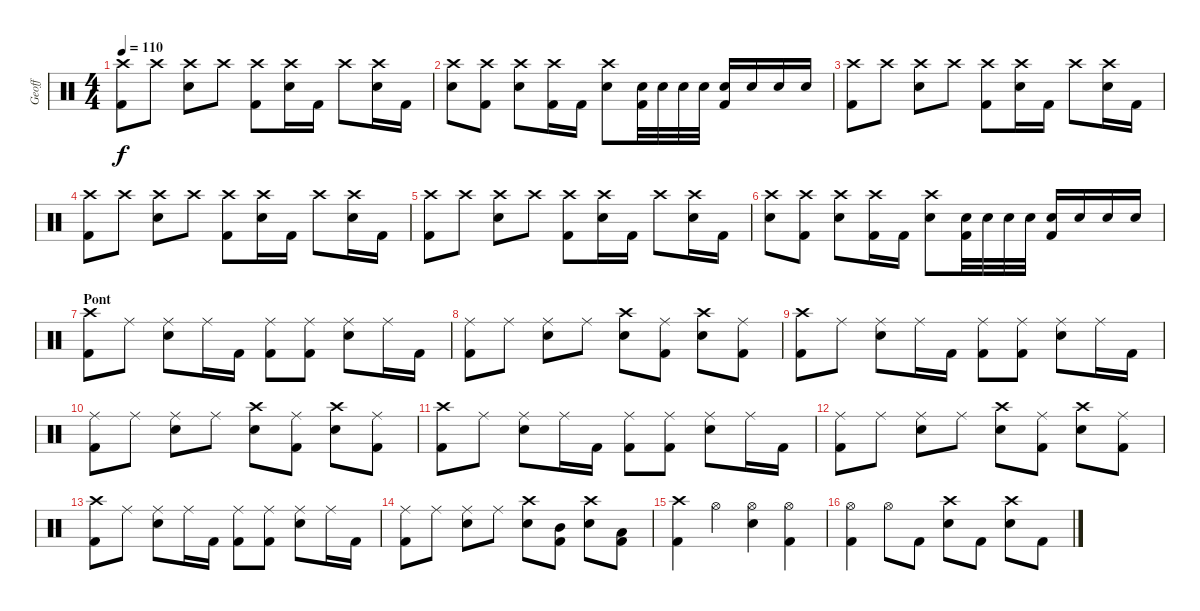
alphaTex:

\track ("Geoff" "Geoff") {instrument percussion}
\staff {score}
\articulation defaults
\ts (4 4)
\tempo 110
\clef neutral
\ks c
("Crash high (hit)" "Kick (hit) 2").8{dy f} "Crash high (hit)".8 ("Crash high (hit)" "Electric Snare (hit)").8 "Crash high (hit)".8 ("Crash high (hit)" "Kick (hit) 2").8 ("Crash high (hit)" "Electric Snare (hit)").16 "Kick (hit) 2".16 "Crash high (hit)".8 ("Crash high (hit)" "Electric Snare (hit)").16 "Kick (hit) 2".16 |
("Crash high (hit)" "Electric Snare (hit)").8 ("Crash high (hit)" "Kick (hit) 2").8 ("Crash high (hit)" "Electric Snare (hit)").8 ("Crash high (hit)" "Kick (hit) 2").16 "Kick (hit) 2".16 ("Crash high (hit)" "Electric Snare (hit)").8 ("Electric Snare (hit)" "Kick (hit) 2").32 "Electric Snare (hit)".32 "Electric Snare (hit)".32 "Electric Snare (hit)".32 ("Electric Snare (hit)" "Kick (hit) 2").16 "Electric Snare (hit)".16 "Electric Snare (hit)".16 "Electric Snare (hit)".16 |
("Crash high (hit)" "Kick (hit) 2").8 "Crash high (hit)".8 ("Crash high (hit)" "Electric Snare (hit)").8 "Crash high (hit)".8 ("Crash high (hit)" "Kick (hit) 2").8 ("Crash high (hit)" "Electric Snare (hit)").16 "Kick (hit) 2".16 "Crash high (hit)".8 ("Crash high (hit)" "Electric Snare (hit)").16 "Kick (hit) 2".16 |
("Crash high (hit)" "Kick (hit) 2").8 "Crash high (hit)".8 ("Crash high (hit)" "Electric Snare (hit)").8 "Crash high (hit)".8 ("Crash high (hit)" "Kick (hit) 2").8 ("Crash high (hit)" "Electric Snare (hit)").16 "Kick (hit) 2".16 "Crash high (hit)".8 ("Crash high (hit)" "Electric Snare (hit)").16 "Kick (hit) 2".16 |
("Crash high (hit)" "Kick (hit) 2").8 "Crash high (hit)".8 ("Crash high (hit)" "Electric Snare (hit)").8 "Crash high (hit)".8 ("Crash high (hit)" "Kick (hit) 2").8 ("Crash high (hit)" "Electric Snare (hit)").16 "Kick (hit) 2".16 "Crash high (hit)".8 ("Crash high (hit)" "Electric Snare (hit)").16 "Kick (hit) 2".16 |
("Crash high (hit)" "Electric Snare (hit)").8 ("Crash high (hit)" "Kick (hit) 2").8 ("Crash high (hit)" "Electric Snare (hit)").8 ("Crash high (hit)" "Kick (hit) 2").16 "Kick (hit) 2".16 ("Crash high (hit)" "Electric Snare (hit)").8 ("Electric Snare (hit)" "Kick (hit) 2").32 "Electric Snare (hit)".32 "Electric Snare (hit)".32 "Electric Snare (hit)".32 ("Electric Snare (hit)" "Kick (hit) 2").16 "Electric Snare (hit)".16 "Electric Snare (hit)".16 "Electric Snare (hit)".16 |
\section ("" "Pont")
("Crash high (hit)" "Kick (hit) 2").8 "Ride (middle)".8 ("Ride (middle)" "Electric Snare (hit)").8 "Ride (middle)".16 "Kick (hit) 2".16 ("Ride (middle)" "Kick (hit) 2").8 ("Ride (middle)" "Kick (hit) 2").8 ("Ride (middle)" "Electric Snare (hit)").8 "Ride (middle)".16 "Kick (hit) 2".16 |
("Ride (middle)" "Kick (hit) 2").8 "Ride (middle)".8 ("Ride (middle)" "Electric Snare (hit)").8 "Ride (middle)".8 ("Crash high (hit)" "Electric Snare (hit)").8 ("Ride (middle)" "Kick (hit) 2").8 ("Crash high (hit)" "Electric Snare (hit)").8 ("Ride (middle)" "Kick (hit) 2").8 |
("Crash high (hit)" "Kick (hit) 2").8 "Ride (middle)".8 ("Ride (middle)" "Electric Snare (hit)").8 "Ride (middle)".16 "Kick (hit) 2".16 ("Ride (middle)" "Kick (hit) 2").8 ("Ride (middle)" "Kick (hit) 2").8 ("Ride (middle)" "Electric Snare (hit)").8 "Ride (middle)".16 "Kick (hit) 2".16 |
("Ride (middle)" "Kick (hit) 2").8 "Ride (middle)".8 ("Ride (middle)" "Electric Snare (hit)").8 "Ride (middle)".8 ("Crash high (hit)" "Electric Snare (hit)").8 ("Ride (middle)" "Kick (hit) 2").8 ("Crash high (hit)" "Electric Snare (hit)").8 ("Ride (middle)" "Kick (hit) 2").8 |
("Crash high (hit)" "Kick (hit) 2").8 "Ride (middle)".8 ("Ride (middle)" "Electric Snare (hit)").8 "Ride (middle)".16 "Kick (hit) 2".16 ("Ride (middle)" "Kick (hit) 2").8 ("Ride (middle)" "Kick (hit) 2").8 ("Ride (middle)" "Electric Snare (hit)").8 "Ride (middle)".16 "Kick (hit) 2".16 |
("Ride (middle)" "Kick (hit) 2").8 "Ride (middle)".8 ("Ride (middle)" "Electric Snare (hit)").8 "Ride (middle)".8 ("Crash high (hit)" "Electric Snare (hit)").8 ("Ride (middle)" "Kick (hit) 2").8 ("Crash high (hit)" "Electric Snare (hit)").8 ("Ride (middle)" "Kick (hit) 2").8 |
("Crash high (hit)" "Kick (hit) 2").8 "Ride (middle)".8 ("Ride (middle)" "Electric Snare (hit)").8 "Ride (middle)".16 "Kick (hit) 2".16 ("Ride (middle)" "Kick (hit) 2").8 ("Ride (middle)" "Kick (hit) 2").8 ("Ride (middle)" "Electric Snare (hit)").8 "Ride (middle)".16 "Kick (hit) 2".16 |
("Ride (middle)" "Kick (hit) 2").8 "Ride (middle)".8 ("Ride (middle)" "Electric Snare (hit)").8 "Ride (middle)".8 ("Crash high (hit)" "Electric Snare (hit)").8 ("Mid Tom (hit)" "Kick (hit) 2").8 ("Crash high (hit)" "Electric Snare (hit)").8 ("Low Tom (hit)" "Kick (hit) 2").8 |
("Crash high (hit)" "Kick (hit) 2").4 "Hi-Hat (open)".4 ("Hi-Hat (open)" "Electric Snare (hit)").4 ("Hi-Hat (open)" "Kick (hit) 2").4 |
("Hi-Hat (open)" "Kick (hit) 2").4 "Hi-Hat (open)".8 "Kick (hit) 2".8 ("Crash high (hit)" "Electric Snare (hit)").8 "Kick (hit) 2".8 ("Crash high (hit)" "Electric Snare (hit)").8 "Kick (hit) 2".8
